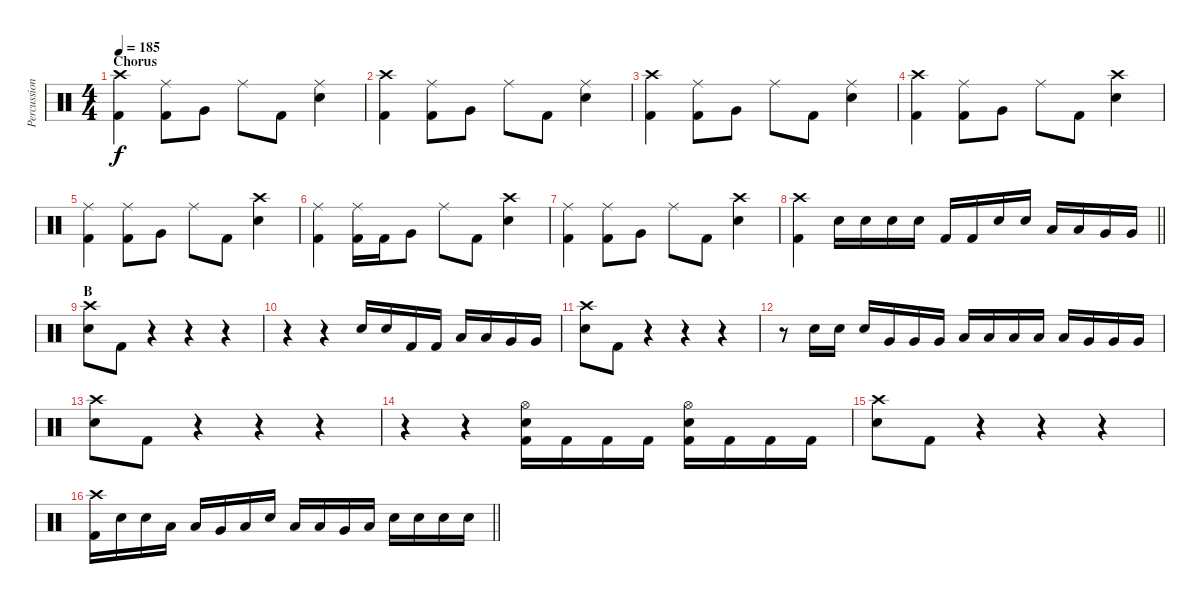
\track ("Percussion" "Percussion") {instrument percussion}
\staff {score}
\articulation defaults
\ts (4 4)
\section ("" "Chorus")
\tempo 185
\clef neutral
\ks c
("Crash high (hit)" "Kick (hit) 2").4{dy f} ("Ride (middle)" "Kick (hit) 2").8 "Very Low Tom (hit)".8 "Ride (middle)".8 "Kick (hit) 2".8 ("Ride (middle)" "Snare (hit) 2").4 |
("Crash high (hit)" "Kick (hit) 2").4 ("Ride (middle)" "Kick (hit) 2").8 "Very Low Tom (hit)".8 "Ride (middle)".8 "Kick (hit) 2".8 ("Ride (middle)" "Snare (hit) 2").4 |
("Crash high (hit)" "Kick (hit) 2").4 ("Ride (middle)" "Kick (hit) 2").8 "Very Low Tom (hit)".8 "Ride (middle)".8 "Kick (hit) 2".8 ("Ride (middle)" "Snare (hit) 2").4 |
("Crash high (hit)" "Kick (hit) 2").4 ("Ride (middle)" "Kick (hit) 2").8 "Very Low Tom (hit)".8 "Ride (middle)".8 "Kick (hit) 2".8 ("Crash high (hit)" "Snare (hit) 2").4 |
("Ride (middle)" "Kick (hit) 2").4 ("Ride (middle)" "Kick (hit) 2").8 "Very Low Tom (hit)".8 "Ride (middle)".8 "Kick (hit) 2".8 ("Crash high (hit)" "Snare (hit) 2").4 |
("Ride (middle)" "Kick (hit) 2").4 ("Ride (middle)" "Kick (hit) 2").16 "Kick (hit) 2".16 "Very Low Tom (hit)".8 "Ride (middle)".8 "Kick (hit) 2".8 ("Crash high (hit)" "Snare (hit) 2").4 |
("Ride (middle)" "Kick (hit) 2").4 ("Ride (middle)" "Kick (hit) 2").8 "Very Low Tom (hit)".8 "Ride (middle)".8 "Kick (hit) 2".8 ("Crash high (hit)" "Snare (hit) 2").4 |
\barLineRight lightlight
("Crash high (hit)" "Kick (hit) 2").4 "Snare (hit) 2".16 "Snare (hit) 2".16 "Snare (hit) 2".16 "Snare (hit) 2".16 "Kick (hit) 2".16 "Kick (hit) 2".16 "Snare (hit) 2".16 "Snare (hit) 2".16 "Low Tom (hit)".16 "Low Tom (hit)".16 "Very Low Tom (hit)".16 "Very Low Tom (hit)".16 |
\section ("" "B")
("Crash high (hit)" "Snare (hit) 2").8 "Kick (hit) 2".8 r.4 r.4 r.4 |
r.4 r.4 "Snare (hit) 2".16 "Snare (hit) 2".16 "Kick (hit) 2".16 "Kick (hit) 2".16 "Low Tom (hit)".16 "Low Tom (hit)".16 "Very Low Tom (hit)".16 "Very Low Tom (hit)".16 |
("Crash high (hit)" "Snare (hit) 2").8 "Kick (hit) 2".8 r.4 r.4 r.4 |
r.8 "Snare (hit) 2".16 "Snare (hit) 2".16 "Snare (hit) 2".16 "Very Low Tom (hit)".16 "Very Low Tom (hit)".16 "Very Low Tom (hit)".16 "Low Tom (hit)".16 "Low Tom (hit)".16 "Low Tom (hit)".16 "Low Floor Tom (hit)".16 "Low Floor Tom (hit)".16 "Very Low Tom (hit)".16 "Very Low Tom (hit)".16 "Very Low Tom (hit)".16 |
("Crash high (hit)" "Snare (hit) 2").8 "Kick (hit) 2".8 r.4 r.4 r.4 |
r.4 r.4 ("Hi-Hat (open)" "Snare (hit) 2" "Kick (hit) 2").16 "Kick (hit) 2".16 "Kick (hit) 2".16 "Kick (hit) 2".16 ("Hi-Hat (open)" "Snare (hit) 2" "Kick (hit) 2").16 "Kick (hit) 2".16 "Kick (hit) 2".16 "Kick (hit) 2".16 |
("Crash high (hit)" "Snare (hit) 2").8 "Kick (hit) 2".8 r.4 r.4 r.4 |
\barLineRight lightlight
("Crash high (hit)" "Kick (hit) 2").16 "Snare (hit) 2".16 "Snare (hit) 2".16 "Low Tom (hit)".16 "Low Tom (hit)".16 "Very Low Tom (hit)".16 "Low Floor Tom (hit)".16 "Snare (hit) 2".16 "Low Tom (hit)".16 "Low Tom (hit)".16 "Very Low Tom (hit)".16 "Low Floor Tom (hit)".16 "Snare (hit) 2".16 "Snare (hit) 2".16 "Snare (hit) 2".16 "Snare (hit) 2".16
